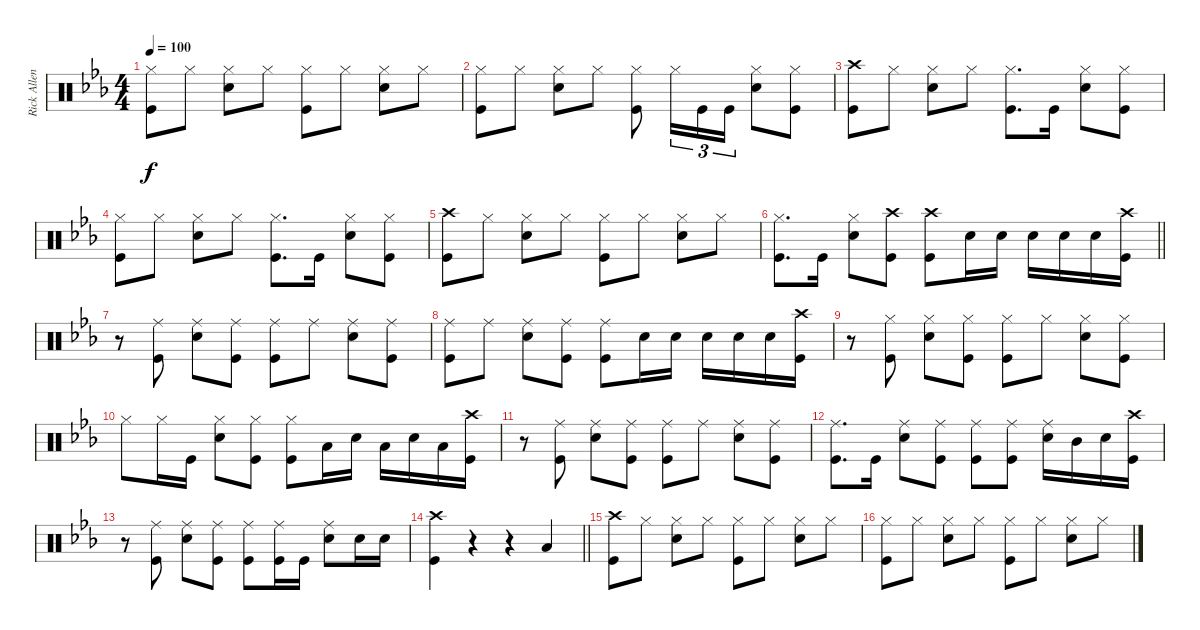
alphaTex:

\track ("Rick Allen" "Rick Allen") {instrument percussion}
\staff {score}
\articulation defaults
\ts (4 4)
\tempo 100
\clef neutral
\ks cminor
("Hi-Hat (closed)" "Kick (hit)").8{dy f} "Hi-Hat (closed)".8 ("Hi-Hat (closed)" "Snare (hit) 2").8 "Hi-Hat (closed)".8 ("Hi-Hat (closed)" "Kick (hit)").8 "Hi-Hat (closed)".8 ("Hi-Hat (closed)" "Snare (hit) 2").8 "Hi-Hat (closed)".8 |
("Hi-Hat (closed)" "Kick (hit)").8 "Hi-Hat (closed)".8 ("Hi-Hat (closed)" "Snare (hit) 2").8 "Hi-Hat (closed)".8 ("Hi-Hat (closed)" "Kick (hit)").8 "Hi-Hat (closed)".16{tu (3 2)} "Kick (hit)".16{tu (3 2)} "Kick (hit)".16{tu (3 2)} ("Hi-Hat (closed)" "Snare (hit) 2").8 ("Hi-Hat (closed)" "Kick (hit)").8 |
("Crash high (hit)" "Kick (hit)").8 "Hi-Hat (closed)".8 ("Hi-Hat (closed)" "Snare (hit) 2").8 "Hi-Hat (closed)".8 ("Hi-Hat (closed)" "Kick (hit)").8{d} "Kick (hit)".16 ("Hi-Hat (closed)" "Snare (hit) 2").8 ("Hi-Hat (closed)" "Kick (hit)").8 |
("Hi-Hat (closed)" "Kick (hit)").8 "Hi-Hat (closed)".8 ("Hi-Hat (closed)" "Snare (hit) 2").8 "Hi-Hat (closed)".8 ("Hi-Hat (closed)" "Kick (hit)").8{d} "Kick (hit)".16 ("Hi-Hat (closed)" "Snare (hit) 2").8 ("Hi-Hat (closed)" "Kick (hit)").8 |
("Crash high (hit)" "Kick (hit)").8 "Hi-Hat (closed)".8 ("Hi-Hat (closed)" "Snare (hit) 2").8 "Hi-Hat (closed)".8 ("Hi-Hat (closed)" "Kick (hit)").8 "Hi-Hat (closed)".8 ("Hi-Hat (closed)" "Snare (hit) 2").8 "Hi-Hat (closed)".8 |
\barLineRight lightlight
("Hi-Hat (closed)" "Kick (hit)").8{d} "Kick (hit)".16 ("Hi-Hat (closed)" "Snare (hit) 2").8 ("Crash high (hit)" "Kick (hit)").8 ("Crash high (hit)" "Kick (hit)").8 "Snare (hit) 2".16 "Snare (hit) 2".16 "Snare (hit) 2".16 "Snare (hit) 2".16 "Snare (hit) 2".16 ("Crash high (hit)" "Kick (hit)").16 |
r.8 ("Ride (middle)" "Kick (hit)").8 ("Ride (middle)" "Snare (hit) 2").8 ("Ride (middle)" "Kick (hit)").8 ("Ride (middle)" "Kick (hit)").8 "Ride (middle)".8 ("Ride (middle)" "Snare (hit) 2").8 ("Ride (middle)" "Kick (hit)").8 |
("Ride (middle)" "Kick (hit)").8 "Ride (middle)".8 ("Ride (middle)" "Snare (hit) 2").8 ("Ride (middle)" "Kick (hit)").8 ("Ride (middle)" "Kick (hit)").8 "Snare (hit) 2".16 "Snare (hit) 2".16 "Snare (hit) 2".16 "Snare (hit) 2".16 "Snare (hit) 2".16 ("Crash high (hit)" "Kick (hit)").16 |
r.8 ("Hi-Hat (closed)" "Kick (hit)").8 ("Hi-Hat (closed)" "Snare (hit) 2").8 ("Hi-Hat (closed)" "Kick (hit)").8 ("Hi-Hat (closed)" "Kick (hit)").8 "Hi-Hat (closed)".8 ("Hi-Hat (closed)" "Snare (hit) 2").8 ("Hi-Hat (closed)" "Kick (hit)").8 |
"Hi-Hat (closed)".8 "Hi-Hat (closed)".16 "Kick (hit)".16 ("Hi-Hat (closed)" "Snare (hit) 2").8 ("Hi-Hat (closed)" "Kick (hit)").8 ("Hi-Hat (closed)" "Kick (hit)").8 "Low Tom (hit)".16 "Snare (hit) 2".16 "Low Tom (hit)".16 "Snare (hit) 2".16 "Low Tom (hit)".16 ("Crash high (hit)" "Kick (hit)").16 |
r.8 ("Ride (middle)" "Kick (hit)").8 ("Ride (middle)" "Snare (hit) 2").8 ("Ride (middle)" "Kick (hit)").8 ("Ride (middle)" "Kick (hit)").8 "Ride (middle)".8 ("Ride (middle)" "Snare (hit) 2").8 ("Ride (middle)" "Kick (hit)").8 |
("Ride (middle)" "Kick (hit)").8{d} "Kick (hit)".16 ("Ride (middle)" "Snare (hit) 2").8 ("Ride (middle)" "Kick (hit)").8 ("Ride (middle)" "Kick (hit)").8 ("Ride (middle)" "Kick (hit)").8 ("Ride (middle)" "Snare (hit) 2").16 "Mid Tom (hit)".16 "Snare (hit) 2".16 ("Crash high (hit)" "Kick (hit)").16 |
r.8 ("Ride (middle)" "Kick (hit)").8 ("Ride (middle)" "Snare (hit) 2").8 ("Ride (middle)" "Kick (hit)").8 ("Ride (middle)" "Kick (hit)").8 ("Ride (middle)" "Kick (hit)").16 "Kick (hit)".16 ("Ride (middle)" "Snare (hit) 2").8 "Snare (hit) 2".16 "Snare (hit) 2".16 |
\barLineRight lightlight
("Crash high (hit)" "Kick (hit)").4 r.4 r.4 "Low Tom (hit)".4 |
("Crash high (hit)" "Kick (hit)").8 "Hi-Hat (closed)".8 ("Hi-Hat (closed)" "Snare (hit) 2").8 "Hi-Hat (closed)".8 ("Hi-Hat (closed)" "Kick (hit)").8 "Hi-Hat (closed)".8 ("Hi-Hat (closed)" "Snare (hit) 2").8 "Hi-Hat (closed)".8 |
("Hi-Hat (closed)" "Kick (hit)").8 "Hi-Hat (closed)".8 ("Hi-Hat (closed)" "Snare (hit) 2").8 "Hi-Hat (closed)".8 ("Hi-Hat (closed)" "Kick (hit)").8 "Hi-Hat (closed)".8 ("Hi-Hat (closed)" "Snare (hit) 2").8 "Hi-Hat (closed)".8
